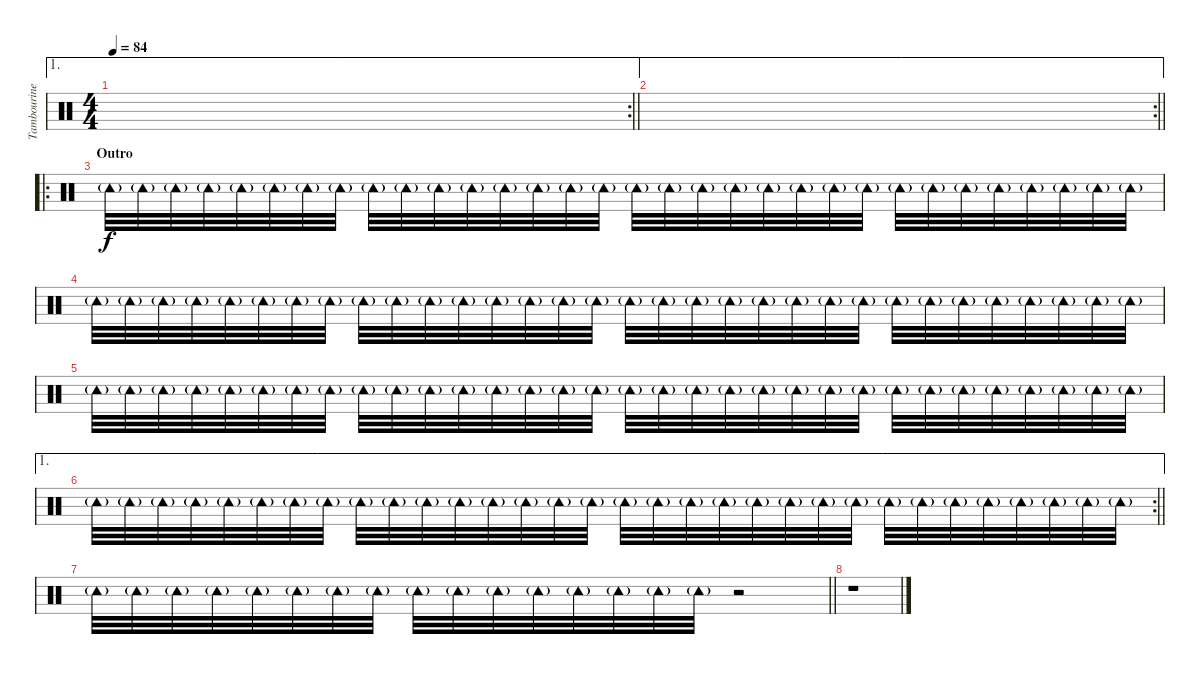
\track ("Tambourine" "Tambourine") {instrument percussion}
\staff {score}
\articulation defaults
\ae 1
\rc 2
\ts (4 4)
\tempo 84
\clef neutral
\barLineRight lightlight
\ks c
|
\ae 1
\rc 2
\barLineRight lightlight
|
\ro
\section ("" "Outro")
"Tambourine (hit)"{g}.32 "Tambourine (hit)"{g}.32 "Tambourine (hit)"{g}.32 "Tambourine (hit)"{g}.32 "Tambourine (hit)"{g}.32 "Tambourine (hit)"{g}.32 "Tambourine (hit)"{g}.32 "Tambourine (hit)"{g}.32 "Tambourine (hit)"{g}.32 "Tambourine (hit)"{g}.32 "Tambourine (hit)"{g}.32 "Tambourine (hit)"{g}.32 "Tambourine (hit)"{g}.32 "Tambourine (hit)"{g}.32 "Tambourine (hit)"{g}.32 "Tambourine (hit)"{g}.32 "Tambourine (hit)"{g}.32 "Tambourine (hit)"{g}.32 "Tambourine (hit)"{g}.32 "Tambourine (hit)"{g}.32 "Tambourine (hit)"{g}.32 "Tambourine (hit)"{g}.32 "Tambourine (hit)"{g}.32 "Tambourine (hit)"{g}.32 "Tambourine (hit)"{g}.32 "Tambourine (hit)"{g}.32 "Tambourine (hit)"{g}.32 "Tambourine (hit)"{g}.32 "Tambourine (hit)"{g}.32 "Tambourine (hit)"{g}.32 "Tambourine (hit)"{g}.32 "Tambourine (hit)"{g}.32 |
"Tambourine (hit)"{g}.32 "Tambourine (hit)"{g}.32 "Tambourine (hit)"{g}.32 "Tambourine (hit)"{g}.32 "Tambourine (hit)"{g}.32 "Tambourine (hit)"{g}.32 "Tambourine (hit)"{g}.32 "Tambourine (hit)"{g}.32 "Tambourine (hit)"{g}.32 "Tambourine (hit)"{g}.32 "Tambourine (hit)"{g}.32 "Tambourine (hit)"{g}.32 "Tambourine (hit)"{g}.32 "Tambourine (hit)"{g}.32 "Tambourine (hit)"{g}.32 "Tambourine (hit)"{g}.32 "Tambourine (hit)"{g}.32 "Tambourine (hit)"{g}.32 "Tambourine (hit)"{g}.32 "Tambourine (hit)"{g}.32 "Tambourine (hit)"{g}.32 "Tambourine (hit)"{g}.32 "Tambourine (hit)"{g}.32 "Tambourine (hit)"{g}.32 "Tambourine (hit)"{g}.32 "Tambourine (hit)"{g}.32 "Tambourine (hit)"{g}.32 "Tambourine (hit)"{g}.32 "Tambourine (hit)"{g}.32 "Tambourine (hit)"{g}.32 "Tambourine (hit)"{g}.32 "Tambourine (hit)"{g}.32 |
"Tambourine (hit)"{g}.32 "Tambourine (hit)"{g}.32 "Tambourine (hit)"{g}.32 "Tambourine (hit)"{g}.32 "Tambourine (hit)"{g}.32 "Tambourine (hit)"{g}.32 "Tambourine (hit)"{g}.32 "Tambourine (hit)"{g}.32 "Tambourine (hit)"{g}.32 "Tambourine (hit)"{g}.32 "Tambourine (hit)"{g}.32 "Tambourine (hit)"{g}.32 "Tambourine (hit)"{g}.32 "Tambourine (hit)"{g}.32 "Tambourine (hit)"{g}.32 "Tambourine (hit)"{g}.32 "Tambourine (hit)"{g}.32 "Tambourine (hit)"{g}.32 "Tambourine (hit)"{g}.32 "Tambourine (hit)"{g}.32 "Tambourine (hit)"{g}.32 "Tambourine (hit)"{g}.32 "Tambourine (hit)"{g}.32 "Tambourine (hit)"{g}.32 "Tambourine (hit)"{g}.32 "Tambourine (hit)"{g}.32 "Tambourine (hit)"{g}.32 "Tambourine (hit)"{g}.32 "Tambourine (hit)"{g}.32 "Tambourine (hit)"{g}.32 "Tambourine (hit)"{g}.32 "Tambourine (hit)"{g}.32 |
\ae 1
\rc 2
\barLineRight lightlight "Tambourine (hit)"{g}.32 "Tambourine (hit)"{g}.32 "Tambourine (hit)"{g}.32 "Tambourine (hit)"{g}.32 "Tambourine (hit)"{g}.32 "Tambourine (hit)"{g}.32 "Tambourine (hit)"{g}.32 "Tambourine (hit)"{g}.32 "Tambourine (hit)"{g}.32 "Tambourine (hit)"{g}.32 "Tambourine (hit)"{g}.32 "Tambourine (hit)"{g}.32 "Tambourine (hit)"{g}.32 "Tambourine (hit)"{g}.32 "Tambourine (hit)"{g}.32 "Tambourine (hit)"{g}.32 "Tambourine (hit)"{g}.32 "Tambourine (hit)"{g}.32 "Tambourine (hit)"{g}.32 "Tambourine (hit)"{g}.32 "Tambourine (hit)"{g}.32 "Tambourine (hit)"{g}.32 "Tambourine (hit)"{g}.32 "Tambourine (hit)"{g}.32 "Tambourine (hit)"{g}.32 "Tambourine (hit)"{g}.32 "Tambourine (hit)"{g}.32 "Tambourine (hit)"{g}.32 "Tambourine (hit)"{g}.32 "Tambourine (hit)"{g}.32 "Tambourine (hit)"{g}.32 "Tambourine (hit)"{g}.32
|
\barLineRight lightlight "Tambourine (hit)"{g}.32 "Tambourine (hit)"{g}.32 "Tambourine (hit)"{g}.32 "Tambourine (hit)"{g}.32 "Tambourine (hit)"{g}.32 "Tambourine (hit)"{g}.32 "Tambourine (hit)"{g}.32 "Tambourine (hit)"{g}.32 "Tambourine (hit)"{g}.32 "Tambourine (hit)"{g}.32 "Tambourine (hit)"{g}.32 "Tambourine (hit)"{g}.32 "Tambourine (hit)"{g}.32 "Tambourine (hit)"{g}.32 "Tambourine (hit)"{g}.32 "Tambourine (hit)"{g}.32
r.2 |
r.1
